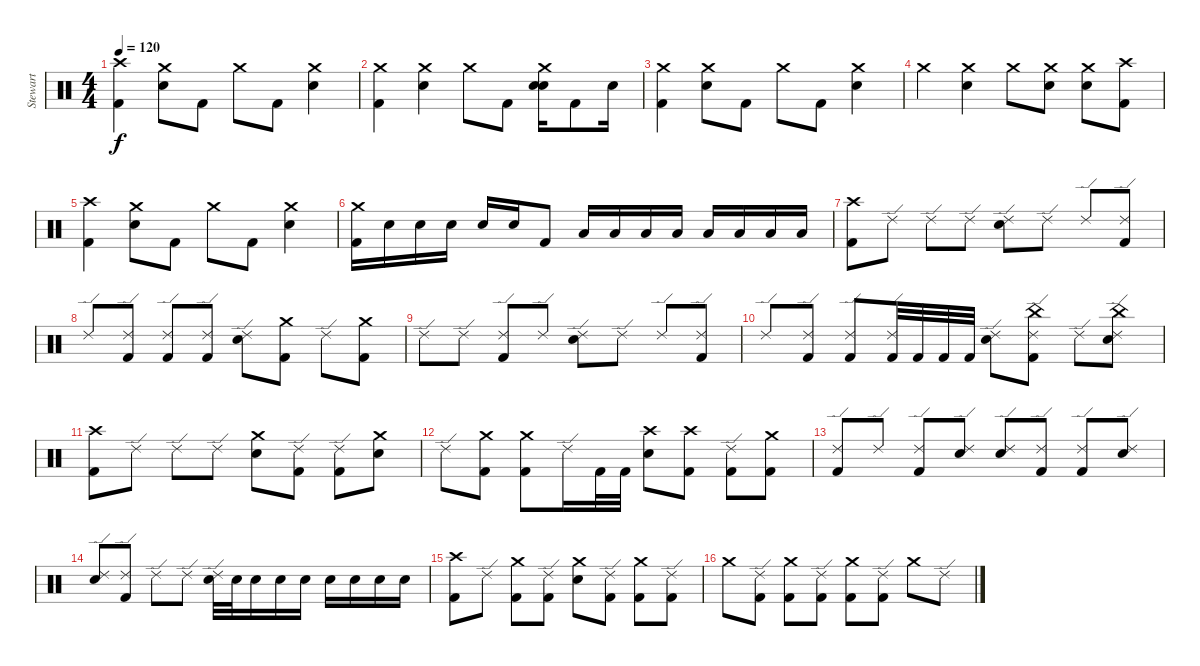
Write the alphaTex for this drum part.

\track ("Stewart" "Stewart") {instrument percussion}
\staff {score}
\articulation defaults
\ts (4 4)
\tempo 120
\clef neutral
\ks c
("Crash high (hit)" "Kick (hit) 2").4{dy f} ("Crash medium (hit)" "Electric Snare (hit)").8 "Kick (hit) 2".8 "Crash medium (hit)".8 "Kick (hit) 2".8 ("Crash medium (hit)" "Electric Snare (hit)").4 |
("Crash medium (hit)" "Kick (hit) 2").4 ("Crash medium (hit)" "Electric Snare (hit)").4 "Crash medium (hit)".8 "Kick (hit) 2".8 ("Crash medium (hit)" "Electric Snare (hit)" "Electric Snare (hit)").16 "Kick (hit) 2".8 "Electric Snare (hit)".16 |
("Crash medium (hit)" "Kick (hit) 2").4 ("Crash medium (hit)" "Electric Snare (hit)").8 "Kick (hit) 2".8 "Crash medium (hit)".8 "Kick (hit) 2".8 ("Crash medium (hit)" "Electric Snare (hit)").4 |
"Crash medium (hit)".4 ("Crash medium (hit)" "Electric Snare (hit)").4 "Crash medium (hit)".8 ("Crash medium (hit)" "Electric Snare (hit)").8 ("Crash medium (hit)" "Electric Snare (hit)").8 ("Crash high (hit)" "Kick (hit) 2").8 |
("Crash high (hit)" "Kick (hit) 2").4 ("Crash medium (hit)" "Electric Snare (hit)").8 "Kick (hit) 2".8 "Crash medium (hit)".8 "Kick (hit) 2".8 ("Crash medium (hit)" "Electric Snare (hit)").4 |
("Crash medium (hit)" "Kick (hit) 2").16 "Electric Snare (hit)".16 "Electric Snare (hit)".16 "Electric Snare (hit)".16 "Electric Snare (hit)".16 "Electric Snare (hit)".16 "Kick (hit) 2".8 "Low Tom (hit)".16 "Low Tom (hit)".16 "Low Tom (hit)".16 "Low Tom (hit)".16 "Low Tom (hit)".16 "Low Tom (hit)".16 "Low Tom (hit)".16 "Low Tom (hit)".16 |
("Crash high (hit)" "Kick (hit) 2").8 "Ride (edge) 2".8 "Ride (edge) 2".8 "Ride (edge) 2".8 ("Ride (edge) 2" "Electric Snare (hit)").8 "Ride (edge) 2".8 "Ride (edge) 2".8 ("Ride (edge) 2" "Kick (hit) 2").8 |
"Ride (edge) 2".8 ("Ride (edge) 2" "Kick (hit) 2").8 ("Ride (edge) 2" "Kick (hit) 2").8 ("Ride (edge) 2" "Kick (hit) 2").8 ("Ride (edge) 2" "Electric Snare (hit)").8 ("Crash medium (hit)" "Kick (hit) 2").8 "Ride (edge) 2".8 ("Crash medium (hit)" "Kick (hit) 2").8 |
"Ride (edge) 2".8 "Ride (edge) 2".8 ("Ride (edge) 2" "Kick (hit) 2").8 "Ride (edge) 2".8 ("Ride (edge) 2" "Electric Snare (hit)").8 "Ride (edge) 2".8 "Ride (edge) 2".8 ("Ride (edge) 2" "Kick (hit) 2").8 |
"Ride (edge) 2".8 ("Ride (edge) 2" "Kick (hit) 2").8 ("Ride (edge) 2" "Kick (hit) 2").8 ("Ride (edge) 2" "Kick (hit) 2").32 "Kick (hit) 2".32 "Kick (hit) 2".32 "Kick (hit) 2".32 ("Ride (edge) 2" "Electric Snare (hit)").8 ("Ride (edge) 2" "China (hit)" "Kick (hit) 2").8 "Ride (edge) 2".8 ("Ride (edge) 2" "China (hit)" "Electric Snare (hit)").8 |
("Crash high (hit)" "Kick (hit) 2").8 "Ride (edge) 2".8 "Ride (edge) 2".8 "Ride (edge) 2".8 ("Crash medium (hit)" "Electric Snare (hit)").8 ("Ride (edge) 2" "Kick (hit) 2").8 ("Ride (edge) 2" "Kick (hit) 2").8 ("Crash medium (hit)" "Electric Snare (hit)").8 |
"Ride (edge) 2".8 ("Crash medium (hit)" "Kick (hit) 2").8 ("Crash medium (hit)" "Kick (hit) 2").8 "Ride (edge) 2".16 "Kick (hit) 2".32 "Kick (hit) 2".32 ("Crash high (hit)" "Electric Snare (hit)").8 ("Crash high (hit)" "Kick (hit) 2").8 ("Ride (edge) 2" "Kick (hit) 2").8 ("Crash medium (hit)" "Kick (hit) 2").8 |
("Ride (edge) 2" "Kick (hit) 2").8 "Ride (edge) 2".8 ("Ride (edge) 2" "Kick (hit) 2").8 ("Ride (edge) 2" "Electric Snare (hit)").8 ("Ride (edge) 2" "Electric Snare (hit)").8 ("Ride (edge) 2" "Kick (hit) 2").8 ("Ride (edge) 2" "Kick (hit) 2").8 ("Ride (edge) 2" "Electric Snare (hit)").8 |
("Ride (edge) 2" "Electric Snare (hit)").8 ("Ride (edge) 2" "Kick (hit) 2").8 "Ride (edge) 2".8 "Ride (edge) 2".8 ("Ride (edge) 2" "Electric Snare (hit)").32 "Electric Snare (hit)".32 "Electric Snare (hit)".16 "Electric Snare (hit)".16 "Electric Snare (hit)".16 "Electric Snare (hit)".16 "Electric Snare (hit)".16 "Electric Snare (hit)".16 "Electric Snare (hit)".16 |
("Crash high (hit)" "Kick (hit) 2").8 "Ride (edge) 2".8 ("Crash medium (hit)" "Kick (hit) 2").8 ("Ride (edge) 2" "Kick (hit) 2").8 ("Crash medium (hit)" "Electric Snare (hit)").8 ("Ride (edge) 2" "Kick (hit) 2").8 ("Crash medium (hit)" "Kick (hit) 2").8 ("Ride (edge) 2" "Kick (hit) 2").8 |
"Crash medium (hit)".8 ("Ride (edge) 2" "Kick (hit) 2").8 ("Crash medium (hit)" "Kick (hit) 2").8 ("Ride (edge) 2" "Kick (hit) 2").8 ("Crash medium (hit)" "Kick (hit) 2").8 ("Ride (edge) 2" "Kick (hit) 2").8 "Crash medium (hit)".8 "Ride (edge) 2".8
